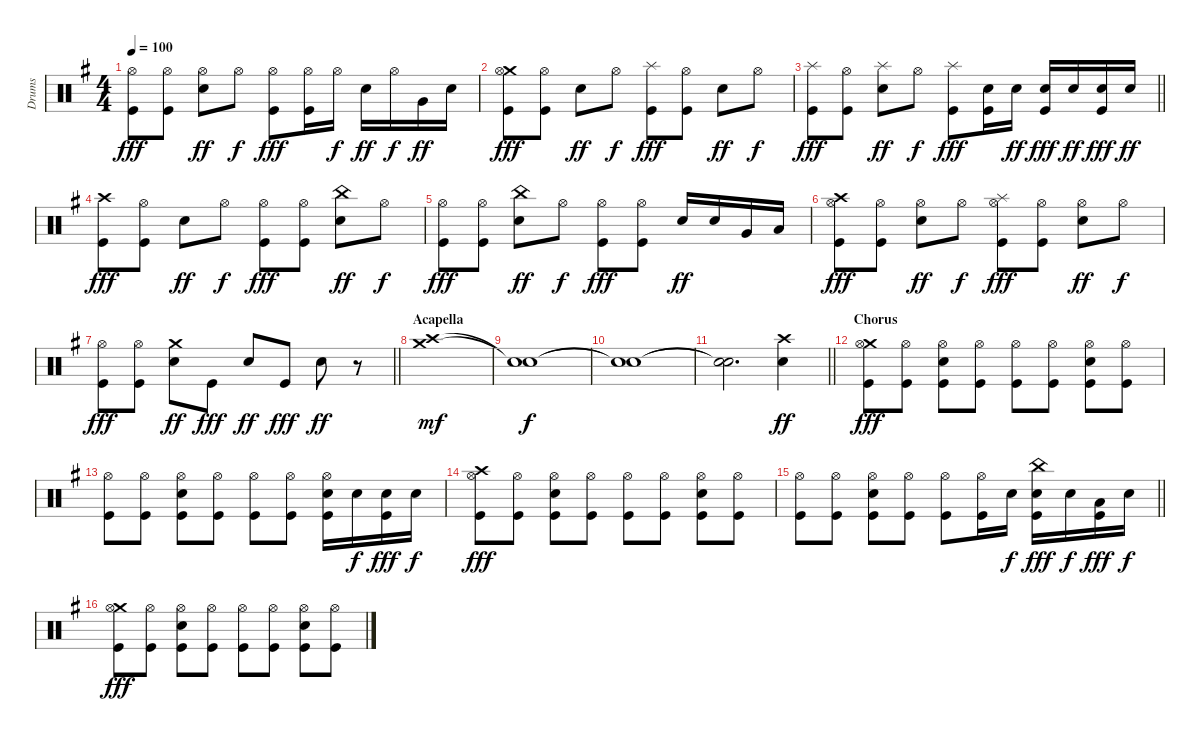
\track ("Drums" "Drums") {instrument percussion}
\staff {score}
\articulation defaults
\ts (4 4)
\tempo 100
\clef neutral
\ks eminor
("Hi-Hat (open)" "Kick (hit)").8{dy fff} ("Hi-Hat (open)" "Kick (hit)").8 ("Hi-Hat (open)" "Snare (hit) 2").8{dy ff} "Hi-Hat (open)".8{dy f} ("Hi-Hat (open)" "Kick (hit)").8{dy fff} ("Hi-Hat (open)" "Kick (hit)").16 "Hi-Hat (open)".16{dy f} "Snare (hit) 2".16{dy ff} "Hi-Hat (open)".16{dy f} "Very Low Tom (hit)".16{dy ff} "Snare (hit) 2".16 |
("Crash medium (hit)" "Hi-Hat (open)" "Kick (hit)").8{dy fff} ("Hi-Hat (open)" "Kick (hit)").8 "Snare (hit) 2".8{dy ff} "Hi-Hat (open)".8{dy f} ("Splash (hit)" "Kick (hit)").8{dy fff} ("Hi-Hat (open)" "Kick (hit)").8 "Snare (hit) 2".8{dy ff} "Hi-Hat (open)".8{dy f} |
\barLineRight lightlight
("Splash (hit)" "Kick (hit)").8{dy fff} ("Hi-Hat (open)" "Kick (hit)").8 ("Splash (hit)" "Snare (hit) 2").8{dy ff} "Hi-Hat (open)".8{dy f} ("Splash (hit)" "Kick (hit)").8{dy fff} ("Snare (hit) 2" "Kick (hit)").16 "Snare (hit) 2".16{dy ff} ("Snare (hit) 2" "Kick (hit)").16{dy fff} "Snare (hit) 2".16{dy ff} ("Snare (hit) 2" "Kick (hit)").16{dy fff} "Snare (hit) 2".16{dy ff} |
("Crash high (hit)" "Kick (hit)").8{dy fff} ("Hi-Hat (open)" "Kick (hit)").8 "Snare (hit) 2".8{dy ff} "Hi-Hat (open)".8{dy f} ("Hi-Hat (open)" "Kick (hit)").8{dy fff} ("Hi-Hat (open)" "Kick (hit)").8 ("China (hit)" "Snare (hit) 2").8{dy ff} "Hi-Hat (open)".8{dy f} |
("Hi-Hat (open)" "Kick (hit)").8{dy fff} ("Hi-Hat (open)" "Kick (hit)").8 ("China (hit)" "Snare (hit) 2").8{dy ff} "Hi-Hat (open)".8{dy f} ("Hi-Hat (open)" "Kick (hit)").8{dy fff} ("Hi-Hat (open)" "Kick (hit)").8 "Snare (hit) 2".16{dy ff} "Snare (hit) 2".16 "Very Low Tom (hit)".16 "Low Floor Tom (hit)".16 |
("Crash high (hit)" "Hi-Hat (open)" "Kick (hit)").8{dy fff} ("Hi-Hat (open)" "Kick (hit)").8 ("Hi-Hat (open)" "Snare (hit) 2").8{dy ff} "Hi-Hat (open)".8{dy f} ("Splash (hit)" "Hi-Hat (open)" "Kick (hit)").8{dy fff} ("Hi-Hat (open)" "Kick (hit)").8 ("Hi-Hat (open)" "Snare (hit) 2").8{dy ff} "Hi-Hat (open)".8{dy f} |
\barLineRight lightlight
("Hi-Hat (open)" "Kick (hit)").8{dy fff} ("Hi-Hat (open)" "Kick (hit)").8 ("Crash medium (hit)" "Snare (hit) 2").8{dy ff} "Kick (hit)".8{dy fff} "Snare (hit) 2".8{dy ff} "Kick (hit)".8{dy fff} "Snare (hit) 2".8{dy ff} r.8 |
\section ("" "Acapella")
("Crash high (hit)" "Crash medium (hit)").1{dy mf} |
("Snare (hit)"{t} "Snare (hit)"{t}).1{dy f} |
("Snare (hit)"{t} "Snare (hit)"{t}).1 |
\barLineRight lightlight
("Snare (hit)"{t} "Snare (hit)"{t}).2{d} ("Crash high (hit)" "Snare (hit) 2").4{dy ff} |
\section ("" "Chorus")
("Crash medium (hit)" "Hi-Hat (open)" "Kick (hit)").8{dy fff} ("Hi-Hat (open)" "Kick (hit)").8 ("Hi-Hat (open)" "Snare (hit) 2" "Kick (hit)").8 ("Hi-Hat (open)" "Kick (hit)").8 ("Hi-Hat (open)" "Kick (hit)").8 ("Hi-Hat (open)" "Kick (hit)").8 ("Hi-Hat (open)" "Snare (hit) 2" "Kick (hit)").8 ("Hi-Hat (open)" "Kick (hit)").8 |
("Hi-Hat (open)" "Kick (hit)").8 ("Hi-Hat (open)" "Kick (hit)").8 ("Hi-Hat (open)" "Snare (hit) 2" "Kick (hit)").8 ("Hi-Hat (open)" "Kick (hit)").8 ("Hi-Hat (open)" "Kick (hit)").8 ("Hi-Hat (open)" "Kick (hit)").8 ("Hi-Hat (open)" "Snare (hit) 2" "Kick (hit)").16 "Snare (hit) 2".16{dy f} ("Snare (hit) 2" "Kick (hit)").16{dy fff} "Snare (hit) 2".16{dy f} |
("Crash high (hit)" "Hi-Hat (open)" "Kick (hit)").8{dy fff} ("Hi-Hat (open)" "Kick (hit)").8 ("Hi-Hat (open)" "Snare (hit) 2" "Kick (hit)").8 ("Hi-Hat (open)" "Kick (hit)").8 ("Hi-Hat (open)" "Kick (hit)").8 ("Hi-Hat (open)" "Kick (hit)").8 ("Hi-Hat (open)" "Snare (hit) 2" "Kick (hit)").8 ("Hi-Hat (open)" "Kick (hit)").8 |
\barLineRight lightlight
("Hi-Hat (open)" "Kick (hit)").8 ("Hi-Hat (open)" "Kick (hit)").8 ("Hi-Hat (open)" "Snare (hit) 2" "Kick (hit)").8 ("Hi-Hat (open)" "Kick (hit)").8 ("Hi-Hat (open)" "Kick (hit)").8 ("Hi-Hat (open)" "Kick (hit)").16 "Snare (hit) 2".16{dy f} ("China (hit)" "Snare (hit) 2" "Kick (hit)").16{dy fff} "Snare (hit) 2".16{dy f} ("Low Tom (hit)" "Kick (hit)").16{dy fff} "Snare (hit) 2".16{dy f} |
("Crash medium (hit)" "Hi-Hat (open)" "Kick (hit)").8{dy fff} ("Hi-Hat (open)" "Kick (hit)").8 ("Hi-Hat (open)" "Snare (hit) 2" "Kick (hit)").8 ("Hi-Hat (open)" "Kick (hit)").8 ("Hi-Hat (open)" "Kick (hit)").8 ("Hi-Hat (open)" "Kick (hit)").8 ("Hi-Hat (open)" "Snare (hit) 2" "Kick (hit)").8 ("Hi-Hat (open)" "Kick (hit)").8
